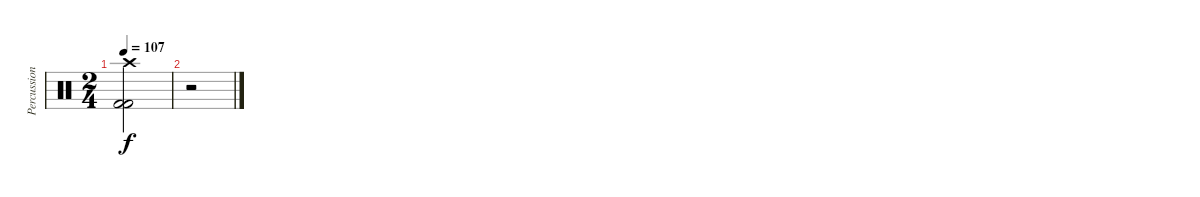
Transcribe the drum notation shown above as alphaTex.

\track ("Percussioni" "Percussion") {instrument percussion}
\staff {score}
\articulation defaults
\ts (2 4)
\tempo 107
\clef neutral
\ks c
("Crash high (hit)" "Kick (hit) 2" "Kick (hit) 2").2{dy f} |
r.2
